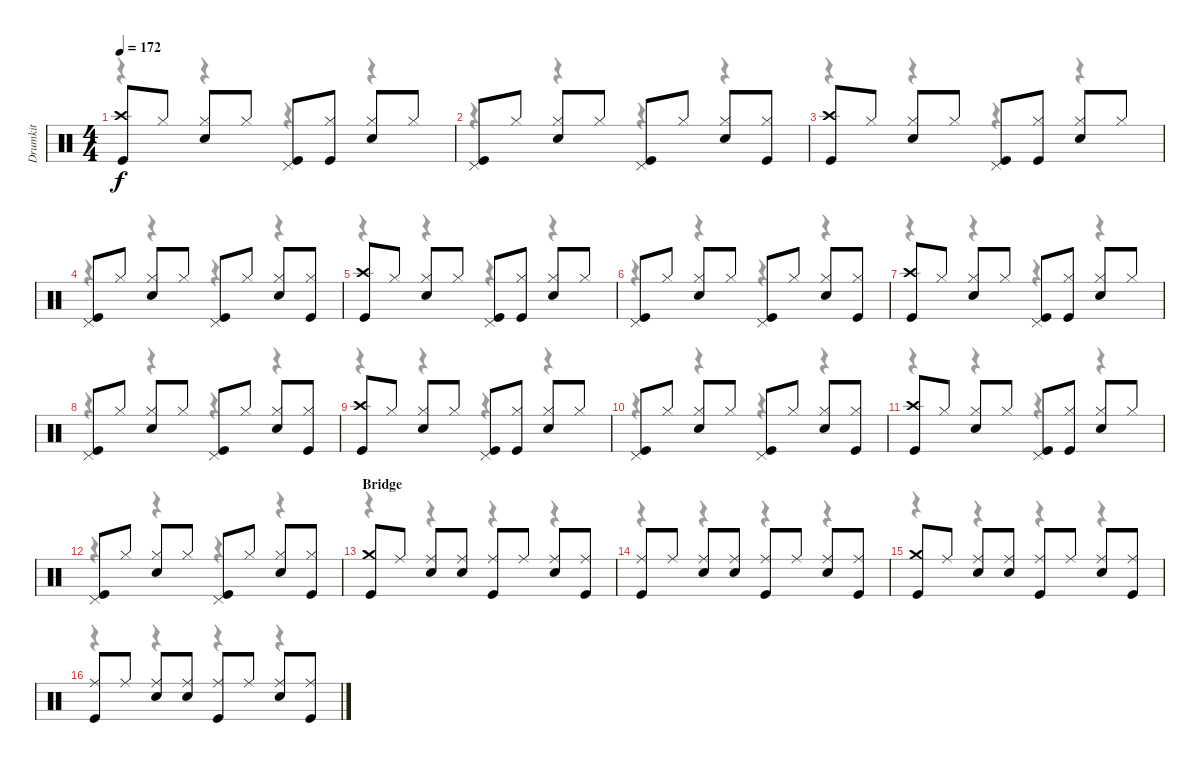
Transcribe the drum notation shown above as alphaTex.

\track ("Drumkit" "Drumkit") {instrument percussion}
\staff {score}
\articulation defaults
\voice
\ts (4 4)
\tempo 172
\clef neutral
\ks c
("Crash high (hit)" "Kick (hit)").8{dy f} "Hi-Hat (closed)".8 ("Hi-Hat (closed)" "Snare (hit) 2").8 "Hi-Hat (closed)".8 ("Pedal Hi-Hat (hit)" "Kick (hit)").8 ("Hi-Hat (closed)" "Kick (hit)").8 ("Hi-Hat (closed)" "Snare (hit) 2").8 "Hi-Hat (closed)".8 |
("Pedal Hi-Hat (hit)" "Kick (hit)").8 "Hi-Hat (closed)".8 ("Hi-Hat (closed)" "Snare (hit) 2").8 "Hi-Hat (closed)".8 ("Pedal Hi-Hat (hit)" "Kick (hit)").8 "Hi-Hat (closed)".8 ("Hi-Hat (closed)" "Snare (hit) 2").8 ("Hi-Hat (closed)" "Kick (hit)").8 |
("Crash high (hit)" "Kick (hit)").8 "Hi-Hat (closed)".8 ("Hi-Hat (closed)" "Snare (hit) 2").8 "Hi-Hat (closed)".8 ("Pedal Hi-Hat (hit)" "Kick (hit)").8 ("Hi-Hat (closed)" "Kick (hit)").8 ("Hi-Hat (closed)" "Snare (hit) 2").8 "Hi-Hat (closed)".8 |
("Pedal Hi-Hat (hit)" "Kick (hit)").8 "Hi-Hat (closed)".8 ("Hi-Hat (closed)" "Snare (hit) 2").8 "Hi-Hat (closed)".8 ("Pedal Hi-Hat (hit)" "Kick (hit)").8 "Hi-Hat (closed)".8 ("Hi-Hat (closed)" "Snare (hit) 2").8 ("Hi-Hat (closed)" "Kick (hit)").8 |
("Crash high (hit)" "Kick (hit)").8 "Hi-Hat (closed)".8 ("Hi-Hat (closed)" "Snare (hit) 2").8 "Hi-Hat (closed)".8 ("Pedal Hi-Hat (hit)" "Kick (hit)").8 ("Hi-Hat (closed)" "Kick (hit)").8 ("Hi-Hat (closed)" "Snare (hit) 2").8 "Hi-Hat (closed)".8 |
("Pedal Hi-Hat (hit)" "Kick (hit)").8 "Hi-Hat (closed)".8 ("Hi-Hat (closed)" "Snare (hit) 2").8 "Hi-Hat (closed)".8 ("Pedal Hi-Hat (hit)" "Kick (hit)").8 "Hi-Hat (closed)".8 ("Hi-Hat (closed)" "Snare (hit) 2").8 ("Hi-Hat (closed)" "Kick (hit)").8 |
("Crash high (hit)" "Kick (hit)").8 "Hi-Hat (closed)".8 ("Hi-Hat (closed)" "Snare (hit) 2").8 "Hi-Hat (closed)".8 ("Pedal Hi-Hat (hit)" "Kick (hit)").8 ("Hi-Hat (closed)" "Kick (hit)").8 ("Hi-Hat (closed)" "Snare (hit) 2").8 "Hi-Hat (closed)".8 |
("Pedal Hi-Hat (hit)" "Kick (hit)").8 "Hi-Hat (closed)".8 ("Hi-Hat (closed)" "Snare (hit) 2").8 "Hi-Hat (closed)".8 ("Pedal Hi-Hat (hit)" "Kick (hit)").8 "Hi-Hat (closed)".8 ("Hi-Hat (closed)" "Snare (hit) 2").8 ("Hi-Hat (closed)" "Kick (hit)").8 |
("Crash high (hit)" "Kick (hit)").8 "Hi-Hat (closed)".8 ("Hi-Hat (closed)" "Snare (hit) 2").8 "Hi-Hat (closed)".8 ("Pedal Hi-Hat (hit)" "Kick (hit)").8 ("Hi-Hat (closed)" "Kick (hit)").8 ("Hi-Hat (closed)" "Snare (hit) 2").8 "Hi-Hat (closed)".8 |
("Pedal Hi-Hat (hit)" "Kick (hit)").8 "Hi-Hat (closed)".8 ("Hi-Hat (closed)" "Snare (hit) 2").8 "Hi-Hat (closed)".8 ("Pedal Hi-Hat (hit)" "Kick (hit)").8 "Hi-Hat (closed)".8 ("Hi-Hat (closed)" "Snare (hit) 2").8 ("Hi-Hat (closed)" "Kick (hit)").8 |
("Crash high (hit)" "Kick (hit)").8 "Hi-Hat (closed)".8 ("Hi-Hat (closed)" "Snare (hit) 2").8 "Hi-Hat (closed)".8 ("Pedal Hi-Hat (hit)" "Kick (hit)").8 ("Hi-Hat (closed)" "Kick (hit)").8 ("Hi-Hat (closed)" "Snare (hit) 2").8 "Hi-Hat (closed)".8 |
("Pedal Hi-Hat (hit)" "Kick (hit)").8 "Hi-Hat (closed)".8 ("Hi-Hat (closed)" "Snare (hit) 2").8 "Hi-Hat (closed)".8 ("Pedal Hi-Hat (hit)" "Kick (hit)").8 "Hi-Hat (closed)".8 ("Hi-Hat (closed)" "Snare (hit) 2").8 ("Hi-Hat (closed)" "Kick (hit)").8 |
\section ("" "Bridge")
("Crash medium (hit)" "Kick (hit)").8 "Ride (middle)".8 ("Ride (middle)" "Snare (hit) 2").8 ("Ride (middle)" "Snare (hit) 2").8 ("Ride (middle)" "Kick (hit)").8 "Ride (middle)".8 ("Ride (middle)" "Snare (hit) 2").8 ("Ride (middle)" "Kick (hit)").8 |
("Ride (middle)" "Kick (hit)").8 "Ride (middle)".8 ("Ride (middle)" "Snare (hit) 2").8 ("Ride (middle)" "Snare (hit) 2").8 ("Ride (middle)" "Kick (hit)").8 "Ride (middle)".8 ("Ride (middle)" "Snare (hit) 2").8 ("Ride (middle)" "Kick (hit)").8 |
("Crash medium (hit)" "Kick (hit)").8 "Ride (middle)".8 ("Ride (middle)" "Snare (hit) 2").8 ("Ride (middle)" "Snare (hit) 2").8 ("Ride (middle)" "Kick (hit)").8 "Ride (middle)".8 ("Ride (middle)" "Snare (hit) 2").8 ("Ride (middle)" "Kick (hit)").8 |
("Ride (middle)" "Kick (hit)").8 "Ride (middle)".8 ("Ride (middle)" "Snare (hit) 2").8 ("Ride (middle)" "Snare (hit) 2").8 ("Ride (middle)" "Kick (hit)").8 "Ride (middle)".8 ("Ride (middle)" "Snare (hit) 2").8 ("Ride (middle)" "Kick (hit)").8
\voice
\clef neutral
\ottava regular
\simile none
\ks c
r.4{dy f} r.4 r.4 r.4 |
r.4 r.4 r.4 r.4 |
r.4 r.4 r.4 r.4 |
r.4 r.4 r.4 r.4 |
r.4 r.4 r.4 r.4 |
r.4 r.4 r.4 r.4 |
r.4 r.4 r.4 r.4 |
r.4 r.4 r.4 r.4 |
r.4 r.4 r.4 r.4 |
r.4 r.4 r.4 r.4 |
r.4 r.4 r.4 r.4 |
r.4 r.4 r.4 r.4 |
r.4 r.4 r.4 r.4 |
r.4 r.4 r.4 r.4 |
r.4 r.4 r.4 r.4 |
r.4 r.4 r.4 r.4
